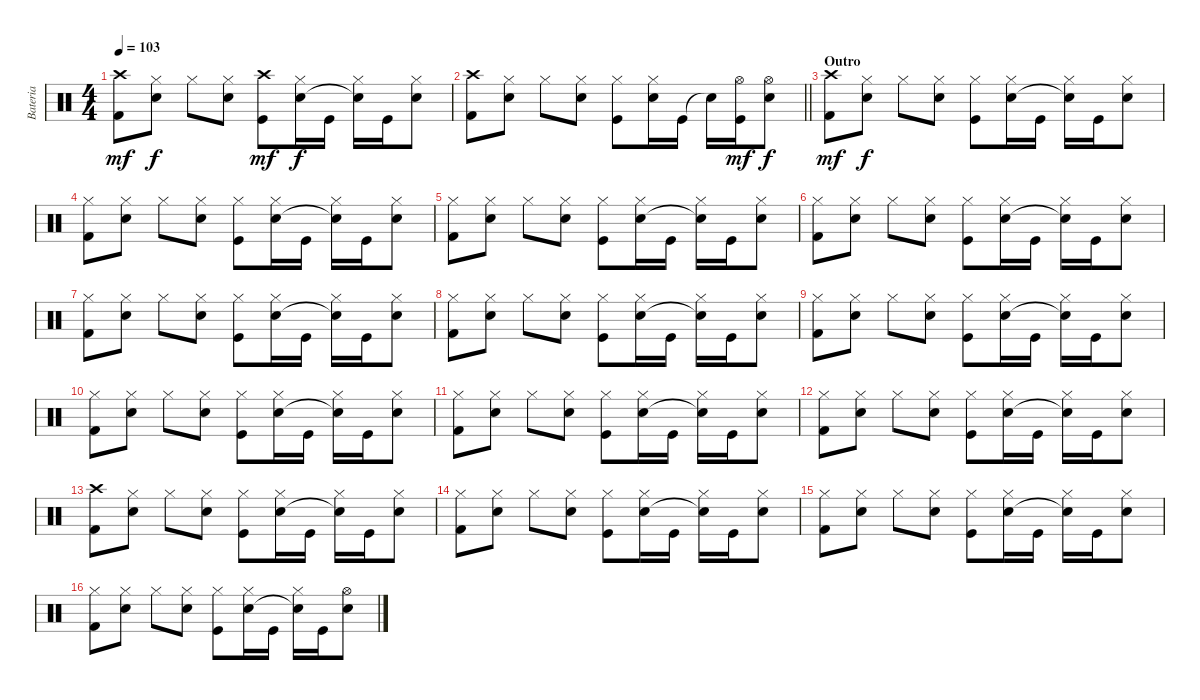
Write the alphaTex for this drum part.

\track ("Bateria" "Bateria") {instrument percussion}
\staff {score}
\articulation defaults
\ts (4 4)
\tempo 103
\clef neutral
\ks c
("Crash high (hit)" "Kick (hit) 2").8{dy mf} ("Hi-Hat (closed)" "Snare (hit) 2").8{dy f} "Hi-Hat (closed)".8 ("Hi-Hat (closed)" "Snare (hit) 2").8 ("Crash high (hit)" "Kick (hit)").8{dy mf} ("Hi-Hat (closed)" "Snare (hit) 2").16{dy f} "Kick (hit)".16 ("Hi-Hat (closed)" "Snare (hit)"{t}).16 "Kick (hit)".16 ("Hi-Hat (closed)" "Snare (hit) 2").8 |
\barLineRight lightlight
("Crash high (hit)" "Kick (hit) 2").8 ("Hi-Hat (closed)" "Snare (hit) 2").8 "Hi-Hat (closed)".8 ("Hi-Hat (closed)" "Snare (hit) 2").8 ("Hi-Hat (closed)" "Kick (hit)").8 ("Hi-Hat (closed)" "Snare (hit) 2").16 "Kick (hit)".16 "Snare (hit)"{t}.16 ("Hi-Hat (open)" "Kick (hit)").16{dy mf} ("Hi-Hat (open)" "Snare (hit) 2").8{dy f} |
\section ("" "Outro")
("Crash high (hit)" "Kick (hit) 2").8{dy mf} ("Hi-Hat (closed)" "Snare (hit) 2").8{dy f} "Hi-Hat (closed)".8 ("Hi-Hat (closed)" "Snare (hit) 2").8 ("Hi-Hat (closed)" "Kick (hit)").8 ("Hi-Hat (closed)" "Snare (hit) 2").16 "Kick (hit)".16 ("Hi-Hat (closed)" "Snare (hit)"{t}).16 "Kick (hit)".16 ("Hi-Hat (closed)" "Snare (hit) 2").8 |
("Hi-Hat (closed)" "Kick (hit) 2").8 ("Hi-Hat (closed)" "Snare (hit) 2").8 "Hi-Hat (closed)".8 ("Hi-Hat (closed)" "Snare (hit) 2").8 ("Hi-Hat (closed)" "Kick (hit)").8 ("Hi-Hat (closed)" "Snare (hit) 2").16 "Kick (hit)".16 ("Hi-Hat (closed)" "Snare (hit)"{t}).16 "Kick (hit)".16 ("Hi-Hat (closed)" "Snare (hit) 2").8 |
("Hi-Hat (closed)" "Kick (hit) 2").8 ("Hi-Hat (closed)" "Snare (hit) 2").8 "Hi-Hat (closed)".8 ("Hi-Hat (closed)" "Snare (hit) 2").8 ("Hi-Hat (closed)" "Kick (hit)").8 ("Hi-Hat (closed)" "Snare (hit) 2").16 "Kick (hit)".16 ("Hi-Hat (closed)" "Snare (hit)"{t}).16 "Kick (hit)".16 ("Hi-Hat (closed)" "Snare (hit) 2").8 |
("Hi-Hat (closed)" "Kick (hit) 2").8 ("Hi-Hat (closed)" "Snare (hit) 2").8 "Hi-Hat (closed)".8 ("Hi-Hat (closed)" "Snare (hit) 2").8 ("Hi-Hat (closed)" "Kick (hit)").8 ("Hi-Hat (closed)" "Snare (hit) 2").16 "Kick (hit)".16 ("Hi-Hat (closed)" "Snare (hit)"{t}).16 "Kick (hit)".16 ("Hi-Hat (closed)" "Snare (hit) 2").8 |
("Hi-Hat (closed)" "Kick (hit) 2").8 ("Hi-Hat (closed)" "Snare (hit) 2").8 "Hi-Hat (closed)".8 ("Hi-Hat (closed)" "Snare (hit) 2").8 ("Hi-Hat (closed)" "Kick (hit)").8 ("Hi-Hat (closed)" "Snare (hit) 2").16 "Kick (hit)".16 ("Hi-Hat (closed)" "Snare (hit)"{t}).16 "Kick (hit)".16 ("Hi-Hat (closed)" "Snare (hit) 2").8 |
("Hi-Hat (closed)" "Kick (hit) 2").8 ("Hi-Hat (closed)" "Snare (hit) 2").8 "Hi-Hat (closed)".8 ("Hi-Hat (closed)" "Snare (hit) 2").8 ("Hi-Hat (closed)" "Kick (hit)").8 ("Hi-Hat (closed)" "Snare (hit) 2").16 "Kick (hit)".16 ("Hi-Hat (closed)" "Snare (hit)"{t}).16 "Kick (hit)".16 ("Hi-Hat (closed)" "Snare (hit) 2").8 |
("Hi-Hat (closed)" "Kick (hit) 2").8 ("Hi-Hat (closed)" "Snare (hit) 2").8 "Hi-Hat (closed)".8 ("Hi-Hat (closed)" "Snare (hit) 2").8 ("Hi-Hat (closed)" "Kick (hit)").8 ("Hi-Hat (closed)" "Snare (hit) 2").16 "Kick (hit)".16 ("Hi-Hat (closed)" "Snare (hit)"{t}).16 "Kick (hit)".16 ("Hi-Hat (closed)" "Snare (hit) 2").8 |
("Hi-Hat (closed)" "Kick (hit) 2").8 ("Hi-Hat (closed)" "Snare (hit) 2").8 "Hi-Hat (closed)".8 ("Hi-Hat (closed)" "Snare (hit) 2").8 ("Hi-Hat (closed)" "Kick (hit)").8 ("Hi-Hat (closed)" "Snare (hit) 2").16 "Kick (hit)".16 ("Hi-Hat (closed)" "Snare (hit)"{t}).16 "Kick (hit)".16 ("Hi-Hat (closed)" "Snare (hit) 2").8 |
("Hi-Hat (closed)" "Kick (hit) 2").8 ("Hi-Hat (closed)" "Snare (hit) 2").8 "Hi-Hat (closed)".8 ("Hi-Hat (closed)" "Snare (hit) 2").8 ("Hi-Hat (closed)" "Kick (hit)").8 ("Hi-Hat (closed)" "Snare (hit) 2").16 "Kick (hit)".16 ("Hi-Hat (closed)" "Snare (hit)"{t}).16 "Kick (hit)".16 ("Hi-Hat (closed)" "Snare (hit) 2").8 |
("Hi-Hat (closed)" "Kick (hit) 2").8 ("Hi-Hat (closed)" "Snare (hit) 2").8 "Hi-Hat (closed)".8 ("Hi-Hat (closed)" "Snare (hit) 2").8 ("Hi-Hat (closed)" "Kick (hit)").8 ("Hi-Hat (closed)" "Snare (hit) 2").16 "Kick (hit)".16 ("Hi-Hat (closed)" "Snare (hit)"{t}).16 "Kick (hit)".16 ("Hi-Hat (closed)" "Snare (hit) 2").8 |
("Crash high (hit)" "Kick (hit) 2").8 ("Hi-Hat (closed)" "Snare (hit) 2").8 "Hi-Hat (closed)".8 ("Hi-Hat (closed)" "Snare (hit) 2").8 ("Hi-Hat (closed)" "Kick (hit)").8 ("Hi-Hat (closed)" "Snare (hit) 2").16 "Kick (hit)".16 ("Hi-Hat (closed)" "Snare (hit)"{t}).16 "Kick (hit)".16 ("Hi-Hat (closed)" "Snare (hit) 2").8 |
("Hi-Hat (closed)" "Kick (hit) 2").8 ("Hi-Hat (closed)" "Snare (hit) 2").8 "Hi-Hat (closed)".8 ("Hi-Hat (closed)" "Snare (hit) 2").8 ("Hi-Hat (closed)" "Kick (hit)").8 ("Hi-Hat (closed)" "Snare (hit) 2").16 "Kick (hit)".16 ("Hi-Hat (closed)" "Snare (hit)"{t}).16 "Kick (hit)".16 ("Hi-Hat (closed)" "Snare (hit) 2").8 |
("Hi-Hat (closed)" "Kick (hit) 2").8 ("Hi-Hat (closed)" "Snare (hit) 2").8 "Hi-Hat (closed)".8 ("Hi-Hat (closed)" "Snare (hit) 2").8 ("Hi-Hat (closed)" "Kick (hit)").8 ("Hi-Hat (closed)" "Snare (hit) 2").16 "Kick (hit)".16 ("Hi-Hat (closed)" "Snare (hit)"{t}).16 "Kick (hit)".16 ("Hi-Hat (closed)" "Snare (hit) 2").8 |
("Hi-Hat (closed)" "Kick (hit) 2").8 ("Hi-Hat (closed)" "Snare (hit) 2").8 "Hi-Hat (closed)".8 ("Hi-Hat (closed)" "Snare (hit) 2").8 ("Hi-Hat (closed)" "Kick (hit)").8 ("Hi-Hat (closed)" "Snare (hit) 2").16 "Kick (hit)".16 ("Hi-Hat (closed)" "Snare (hit)"{t}).16 "Kick (hit)".16 ("Hi-Hat (open)" "Snare (hit) 2").8
